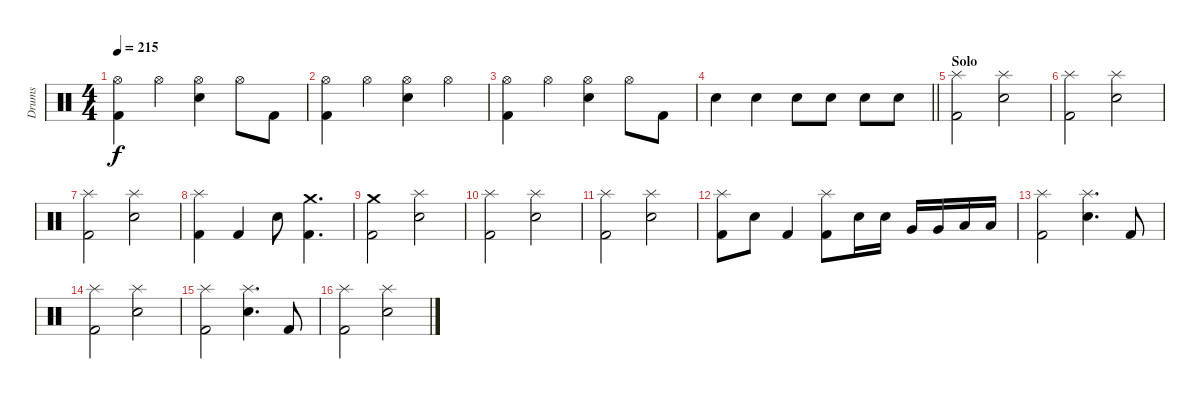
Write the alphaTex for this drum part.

\track ("Drums" "Drums") {instrument percussion}
\staff {score}
\articulation defaults
\ts (4 4)
\tempo 215
\clef neutral
\ks c
("Hi-Hat (open)" "Kick (hit) 2").4{dy f} "Hi-Hat (open)".4 ("Hi-Hat (open)" "Electric Snare (hit)").4 "Hi-Hat (open)".8 "Kick (hit) 2".8 |
("Hi-Hat (open)" "Kick (hit) 2").4 "Hi-Hat (open)".4 ("Hi-Hat (open)" "Electric Snare (hit)").4 "Hi-Hat (open)".4 |
("Hi-Hat (open)" "Kick (hit) 2").4 "Hi-Hat (open)".4 ("Hi-Hat (open)" "Electric Snare (hit)").4 "Hi-Hat (open)".8 "Kick (hit) 2".8 |
\barLineRight lightlight "Electric Snare (hit)".4 "Electric Snare (hit)".4 "Electric Snare (hit)".8 "Electric Snare (hit)".8 "Electric Snare (hit)".8 "Electric Snare (hit)".8
|
\section ("" "Solo")
("Splash (hit)" "Kick (hit) 2").2 ("Splash (hit)" "Snare (hit) 2").2 |
("Splash (hit)" "Kick (hit) 2").2 ("Splash (hit)" "Snare (hit) 2").2 |
("Splash (hit)" "Kick (hit) 2").2 ("Splash (hit)" "Snare (hit) 2").2 |
("Splash (hit)" "Kick (hit) 2").4 "Kick (hit) 2".4 "Snare (hit) 2".8 ("Crash medium (hit)" "Kick (hit) 2").4{d} |
("Crash medium (hit)" "Kick (hit) 2").2 ("Splash (hit)" "Snare (hit) 2").2 |
("Splash (hit)" "Kick (hit) 2").2 ("Splash (hit)" "Snare (hit) 2").2 |
("Splash (hit)" "Kick (hit) 2").2 ("Splash (hit)" "Snare (hit) 2").2 |
("Splash (hit)" "Kick (hit) 2").8 "Snare (hit) 2".8 "Kick (hit) 2".4 ("Splash (hit)" "Kick (hit) 2").8 "Electric Snare (hit)".16 "Electric Snare (hit)".16 "Very Low Tom (hit)".16 "Very Low Tom (hit)".16 "Low Floor Tom (hit)".16 "Low Floor Tom (hit)".16 |
("Splash (hit)" "Kick (hit) 2").2 ("Splash (hit)" "Snare (hit) 2").4{d} "Kick (hit) 2".8 |
("Splash (hit)" "Kick (hit) 2").2 ("Splash (hit)" "Snare (hit) 2").2 |
("Splash (hit)" "Kick (hit) 2").2 ("Splash (hit)" "Snare (hit) 2").4{d} "Kick (hit) 2".8 |
("Splash (hit)" "Kick (hit) 2").2 ("Splash (hit)" "Snare (hit) 2").2
